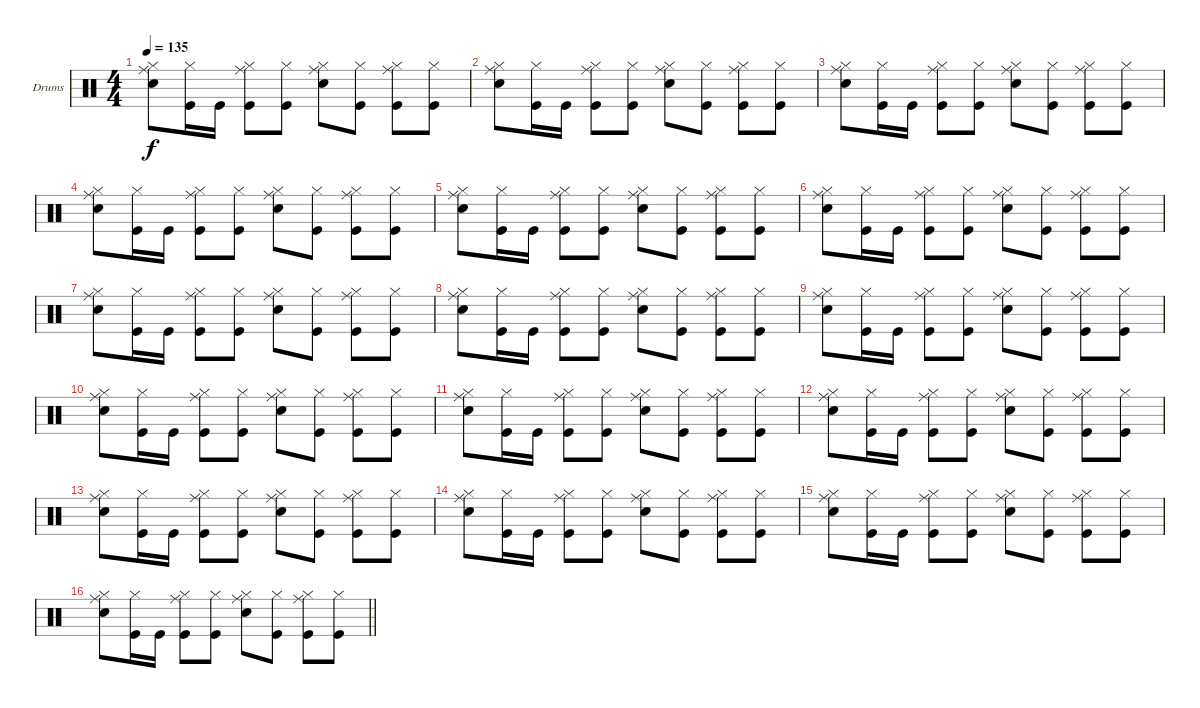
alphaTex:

\defaultSystemsLayout 4
\bracketExtendMode groupsimilarinstruments
\firstSystemTrackNameOrientation horizontal
\otherSystemsTrackNameOrientation horizontal
\track ("Drumkit" "Drums") {instrument percussion}
\staff {score}
\articulation defaults
\ts (4 4)
\tempo 135
\clef neutral
\ks c
("Snare (hit) 2" "Hi-Hat (closed)" "Ride (middle)").8{dy f} ("Kick (hit)" "Hi-Hat (closed)").16 "Kick (hit)".16 ("Kick (hit)" "Hi-Hat (closed)" "Ride (middle)").8 ("Kick (hit)" "Hi-Hat (closed)").8 ("Snare (hit) 2" "Hi-Hat (closed)" "Ride (middle)").8 ("Kick (hit)" "Hi-Hat (closed)").8 ("Kick (hit)" "Hi-Hat (closed)" "Ride (middle)").8 ("Kick (hit)" "Hi-Hat (closed)").8 |
("Snare (hit) 2" "Hi-Hat (closed)" "Ride (middle)").8 ("Kick (hit)" "Hi-Hat (closed)").16 "Kick (hit)".16 ("Kick (hit)" "Hi-Hat (closed)" "Ride (middle)").8 ("Kick (hit)" "Hi-Hat (closed)").8 ("Snare (hit) 2" "Hi-Hat (closed)" "Ride (middle)").8 ("Kick (hit)" "Hi-Hat (closed)").8 ("Kick (hit)" "Hi-Hat (closed)" "Ride (middle)").8 ("Kick (hit)" "Hi-Hat (closed)").8 |
("Snare (hit) 2" "Hi-Hat (closed)" "Ride (middle)").8 ("Kick (hit)" "Hi-Hat (closed)").16 "Kick (hit)".16 ("Kick (hit)" "Hi-Hat (closed)" "Ride (middle)").8 ("Kick (hit)" "Hi-Hat (closed)").8 ("Snare (hit) 2" "Hi-Hat (closed)" "Ride (middle)").8 ("Kick (hit)" "Hi-Hat (closed)").8 ("Kick (hit)" "Hi-Hat (closed)" "Ride (middle)").8 ("Kick (hit)" "Hi-Hat (closed)").8 |
("Snare (hit) 2" "Hi-Hat (closed)" "Ride (middle)").8 ("Kick (hit)" "Hi-Hat (closed)").16 "Kick (hit)".16 ("Kick (hit)" "Hi-Hat (closed)" "Ride (middle)").8 ("Kick (hit)" "Hi-Hat (closed)").8 ("Snare (hit) 2" "Hi-Hat (closed)" "Ride (middle)").8 ("Kick (hit)" "Hi-Hat (closed)").8 ("Kick (hit)" "Hi-Hat (closed)" "Ride (middle)").8 ("Kick (hit)" "Hi-Hat (closed)").8 |
("Snare (hit) 2" "Hi-Hat (closed)" "Ride (middle)").8 ("Kick (hit)" "Hi-Hat (closed)").16 "Kick (hit)".16 ("Kick (hit)" "Hi-Hat (closed)" "Ride (middle)").8 ("Kick (hit)" "Hi-Hat (closed)").8 ("Snare (hit) 2" "Hi-Hat (closed)" "Ride (middle)").8 ("Kick (hit)" "Hi-Hat (closed)").8 ("Kick (hit)" "Hi-Hat (closed)" "Ride (middle)").8 ("Kick (hit)" "Hi-Hat (closed)").8 |
("Snare (hit) 2" "Hi-Hat (closed)" "Ride (middle)").8 ("Kick (hit)" "Hi-Hat (closed)").16 "Kick (hit)".16 ("Kick (hit)" "Hi-Hat (closed)" "Ride (middle)").8 ("Kick (hit)" "Hi-Hat (closed)").8 ("Snare (hit) 2" "Hi-Hat (closed)" "Ride (middle)").8 ("Kick (hit)" "Hi-Hat (closed)").8 ("Kick (hit)" "Hi-Hat (closed)" "Ride (middle)").8 ("Kick (hit)" "Hi-Hat (closed)").8 |
("Snare (hit) 2" "Hi-Hat (closed)" "Ride (middle)").8 ("Kick (hit)" "Hi-Hat (closed)").16 "Kick (hit)".16 ("Kick (hit)" "Hi-Hat (closed)" "Ride (middle)").8 ("Kick (hit)" "Hi-Hat (closed)").8 ("Snare (hit) 2" "Hi-Hat (closed)" "Ride (middle)").8 ("Kick (hit)" "Hi-Hat (closed)").8 ("Kick (hit)" "Hi-Hat (closed)" "Ride (middle)").8 ("Kick (hit)" "Hi-Hat (closed)").8 |
("Snare (hit) 2" "Hi-Hat (closed)" "Ride (middle)").8 ("Kick (hit)" "Hi-Hat (closed)").16 "Kick (hit)".16 ("Kick (hit)" "Hi-Hat (closed)" "Ride (middle)").8 ("Kick (hit)" "Hi-Hat (closed)").8 ("Snare (hit) 2" "Hi-Hat (closed)" "Ride (middle)").8 ("Kick (hit)" "Hi-Hat (closed)").8 ("Kick (hit)" "Hi-Hat (closed)" "Ride (middle)").8 ("Kick (hit)" "Hi-Hat (closed)").8 |
("Snare (hit) 2" "Hi-Hat (closed)" "Ride (middle)").8 ("Kick (hit)" "Hi-Hat (closed)").16 "Kick (hit)".16 ("Kick (hit)" "Hi-Hat (closed)" "Ride (middle)").8 ("Kick (hit)" "Hi-Hat (closed)").8 ("Snare (hit) 2" "Hi-Hat (closed)" "Ride (middle)").8 ("Kick (hit)" "Hi-Hat (closed)").8 ("Kick (hit)" "Hi-Hat (closed)" "Ride (middle)").8 ("Kick (hit)" "Hi-Hat (closed)").8 |
("Snare (hit) 2" "Hi-Hat (closed)" "Ride (middle)").8 ("Kick (hit)" "Hi-Hat (closed)").16 "Kick (hit)".16 ("Kick (hit)" "Hi-Hat (closed)" "Ride (middle)").8 ("Kick (hit)" "Hi-Hat (closed)").8 ("Snare (hit) 2" "Hi-Hat (closed)" "Ride (middle)").8 ("Kick (hit)" "Hi-Hat (closed)").8 ("Kick (hit)" "Hi-Hat (closed)" "Ride (middle)").8 ("Kick (hit)" "Hi-Hat (closed)").8 |
("Snare (hit) 2" "Hi-Hat (closed)" "Ride (middle)").8 ("Kick (hit)" "Hi-Hat (closed)").16 "Kick (hit)".16 ("Kick (hit)" "Hi-Hat (closed)" "Ride (middle)").8 ("Kick (hit)" "Hi-Hat (closed)").8 ("Snare (hit) 2" "Hi-Hat (closed)" "Ride (middle)").8 ("Kick (hit)" "Hi-Hat (closed)").8 ("Kick (hit)" "Hi-Hat (closed)" "Ride (middle)").8 ("Kick (hit)" "Hi-Hat (closed)").8 |
("Snare (hit) 2" "Hi-Hat (closed)" "Ride (middle)").8 ("Kick (hit)" "Hi-Hat (closed)").16 "Kick (hit)".16 ("Kick (hit)" "Hi-Hat (closed)" "Ride (middle)").8 ("Kick (hit)" "Hi-Hat (closed)").8 ("Snare (hit) 2" "Hi-Hat (closed)" "Ride (middle)").8 ("Kick (hit)" "Hi-Hat (closed)").8 ("Kick (hit)" "Hi-Hat (closed)" "Ride (middle)").8 ("Kick (hit)" "Hi-Hat (closed)").8 |
("Snare (hit) 2" "Hi-Hat (closed)" "Ride (middle)").8 ("Kick (hit)" "Hi-Hat (closed)").16 "Kick (hit)".16 ("Kick (hit)" "Hi-Hat (closed)" "Ride (middle)").8 ("Kick (hit)" "Hi-Hat (closed)").8 ("Snare (hit) 2" "Hi-Hat (closed)" "Ride (middle)").8 ("Kick (hit)" "Hi-Hat (closed)").8 ("Kick (hit)" "Hi-Hat (closed)" "Ride (middle)").8 ("Kick (hit)" "Hi-Hat (closed)").8 |
("Snare (hit) 2" "Hi-Hat (closed)" "Ride (middle)").8 ("Kick (hit)" "Hi-Hat (closed)").16 "Kick (hit)".16 ("Kick (hit)" "Hi-Hat (closed)" "Ride (middle)").8 ("Kick (hit)" "Hi-Hat (closed)").8 ("Snare (hit) 2" "Hi-Hat (closed)" "Ride (middle)").8 ("Kick (hit)" "Hi-Hat (closed)").8 ("Kick (hit)" "Hi-Hat (closed)" "Ride (middle)").8 ("Kick (hit)" "Hi-Hat (closed)").8 |
("Snare (hit) 2" "Hi-Hat (closed)" "Ride (middle)").8 ("Kick (hit)" "Hi-Hat (closed)").16 "Kick (hit)".16 ("Kick (hit)" "Hi-Hat (closed)" "Ride (middle)").8 ("Kick (hit)" "Hi-Hat (closed)").8 ("Snare (hit) 2" "Hi-Hat (closed)" "Ride (middle)").8 ("Kick (hit)" "Hi-Hat (closed)").8 ("Kick (hit)" "Hi-Hat (closed)" "Ride (middle)").8 ("Kick (hit)" "Hi-Hat (closed)").8 |
\barLineRight lightlight
("Snare (hit) 2" "Hi-Hat (closed)" "Ride (middle)").8 ("Kick (hit)" "Hi-Hat (closed)").16 "Kick (hit)".16 ("Kick (hit)" "Hi-Hat (closed)" "Ride (middle)").8 ("Kick (hit)" "Hi-Hat (closed)").8 ("Snare (hit) 2" "Hi-Hat (closed)" "Ride (middle)").8 ("Kick (hit)" "Hi-Hat (closed)").8 ("Kick (hit)" "Hi-Hat (closed)" "Ride (middle)").8 ("Kick (hit)" "Hi-Hat (closed)").8
